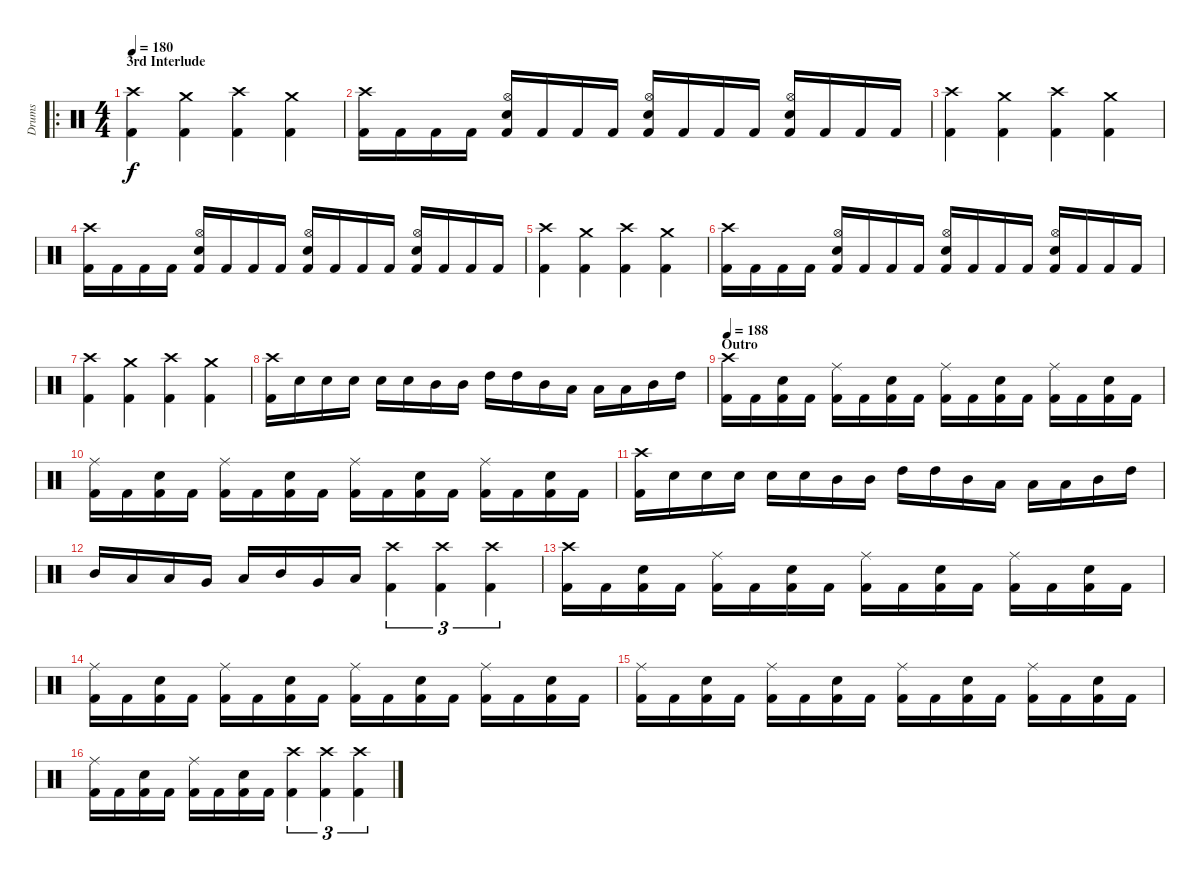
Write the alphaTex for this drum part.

\track ("Drums" "Drums") {instrument percussion}
\staff {score}
\articulation defaults
\ro
\ts (4 4)
\section ("" "3rd Interlude")
\tempo 180
\clef neutral
\ks c
("Crash high (hit)" "Kick (hit) 2").4{dy f} ("Crash medium (hit)" "Kick (hit) 2").4 ("Crash high (hit)" "Kick (hit) 2").4 ("Crash medium (hit)" "Kick (hit) 2").4 |
("Crash high (hit)" "Kick (hit) 2").16 "Kick (hit) 2".16 "Kick (hit) 2".16 "Kick (hit) 2".16 ("Hi-Hat (open)" "Electric Snare (hit)" "Kick (hit) 2").16 "Kick (hit) 2".16 "Kick (hit) 2".16 "Kick (hit) 2".16 ("Hi-Hat (open)" "Electric Snare (hit)" "Kick (hit) 2").16 "Kick (hit) 2".16 "Kick (hit) 2".16 "Kick (hit) 2".16 ("Hi-Hat (open)" "Electric Snare (hit)" "Kick (hit) 2").16 "Kick (hit) 2".16 "Kick (hit) 2".16 "Kick (hit) 2".16 |
("Crash high (hit)" "Kick (hit) 2").4 ("Crash medium (hit)" "Kick (hit) 2").4 ("Crash high (hit)" "Kick (hit) 2").4 ("Crash medium (hit)" "Kick (hit) 2").4 |
("Crash high (hit)" "Kick (hit) 2").16 "Kick (hit) 2".16 "Kick (hit) 2".16 "Kick (hit) 2".16 ("Hi-Hat (open)" "Electric Snare (hit)" "Kick (hit) 2").16 "Kick (hit) 2".16 "Kick (hit) 2".16 "Kick (hit) 2".16 ("Hi-Hat (open)" "Electric Snare (hit)" "Kick (hit) 2").16 "Kick (hit) 2".16 "Kick (hit) 2".16 "Kick (hit) 2".16 ("Hi-Hat (open)" "Electric Snare (hit)" "Kick (hit) 2").16 "Kick (hit) 2".16 "Kick (hit) 2".16 "Kick (hit) 2".16 |
("Crash high (hit)" "Kick (hit) 2").4 ("Crash medium (hit)" "Kick (hit) 2").4 ("Crash high (hit)" "Kick (hit) 2").4 ("Crash medium (hit)" "Kick (hit) 2").4 |
("Crash high (hit)" "Kick (hit) 2").16 "Kick (hit) 2".16 "Kick (hit) 2".16 "Kick (hit) 2".16 ("Hi-Hat (open)" "Electric Snare (hit)" "Kick (hit) 2").16 "Kick (hit) 2".16 "Kick (hit) 2".16 "Kick (hit) 2".16 ("Hi-Hat (open)" "Electric Snare (hit)" "Kick (hit) 2").16 "Kick (hit) 2".16 "Kick (hit) 2".16 "Kick (hit) 2".16 ("Hi-Hat (open)" "Electric Snare (hit)" "Kick (hit) 2").16 "Kick (hit) 2".16 "Kick (hit) 2".16 "Kick (hit) 2".16 |
("Crash high (hit)" "Kick (hit) 2").4 ("Crash medium (hit)" "Kick (hit) 2").4 ("Crash high (hit)" "Kick (hit) 2").4 ("Crash medium (hit)" "Kick (hit) 2").4 |
("Crash high (hit)" "Kick (hit) 2").16 "Electric Snare (hit)".16 "Electric Snare (hit)".16 "Electric Snare (hit)".16 "Electric Snare (hit)".16 "Electric Snare (hit)".16 "Mid Tom (hit)".16 "Mid Tom (hit)".16 "High Tom (hit)".16 "High Tom (hit)".16 "Mid Tom (hit)".16 "Low Tom (hit)".16 "Low Tom (hit)".16 "Low Tom (hit)".16 "Mid Tom (hit)".16 "High Tom (hit)".16 |
\section ("" "Outro")
\tempo 188
("Crash high (hit)" "Kick (hit) 2").16 "Kick (hit) 2".16 ("Electric Snare (hit)" "Kick (hit) 2").16 "Kick (hit) 2".16 ("Ride (middle)" "Kick (hit) 2").16 "Kick (hit) 2".16 ("Electric Snare (hit)" "Kick (hit) 2").16 "Kick (hit) 2".16 ("Ride (middle)" "Kick (hit) 2").16 "Kick (hit) 2".16 ("Electric Snare (hit)" "Kick (hit) 2").16 "Kick (hit) 2".16 ("Ride (middle)" "Kick (hit) 2").16 "Kick (hit) 2".16 ("Electric Snare (hit)" "Kick (hit) 2").16 "Kick (hit) 2".16 |
("Ride (middle)" "Kick (hit) 2").16 "Kick (hit) 2".16 ("Electric Snare (hit)" "Kick (hit) 2").16 "Kick (hit) 2".16 ("Ride (middle)" "Kick (hit) 2").16 "Kick (hit) 2".16 ("Electric Snare (hit)" "Kick (hit) 2").16 "Kick (hit) 2".16 ("Ride (middle)" "Kick (hit) 2").16 "Kick (hit) 2".16 ("Electric Snare (hit)" "Kick (hit) 2").16 "Kick (hit) 2".16 ("Ride (middle)" "Kick (hit) 2").16 "Kick (hit) 2".16 ("Electric Snare (hit)" "Kick (hit) 2").16 "Kick (hit) 2".16 |
("Crash high (hit)" "Kick (hit) 2").16 "Electric Snare (hit)".16 "Electric Snare (hit)".16 "Electric Snare (hit)".16 "Electric Snare (hit)".16 "Electric Snare (hit)".16 "Mid Tom (hit)".16 "Mid Tom (hit)".16 "High Tom (hit)".16 "High Tom (hit)".16 "Mid Tom (hit)".16 "Low Tom (hit)".16 "Low Tom (hit)".16 "Low Tom (hit)".16 "Mid Tom (hit)".16 "High Tom (hit)".16 |
"Mid Tom (hit)".16 "Low Tom (hit)".16 "Low Tom (hit)".16 "Very Low Tom (hit)".16 "Low Tom (hit)".16 "Mid Tom (hit)".16 "Very Low Tom (hit)".16 "Low Floor Tom (hit)".16 ("Crash high (hit)" "Kick (hit) 2").4{tu (3 2)} ("Crash high (hit)" "Kick (hit) 2").4{tu (3 2)} ("Crash high (hit)" "Kick (hit) 2").4{tu (3 2)} |
("Crash high (hit)" "Kick (hit) 2").16 "Kick (hit) 2".16 ("Electric Snare (hit)" "Kick (hit) 2").16 "Kick (hit) 2".16 ("Ride (middle)" "Kick (hit) 2").16 "Kick (hit) 2".16 ("Electric Snare (hit)" "Kick (hit) 2").16 "Kick (hit) 2".16 ("Ride (middle)" "Kick (hit) 2").16 "Kick (hit) 2".16 ("Electric Snare (hit)" "Kick (hit) 2").16 "Kick (hit) 2".16 ("Ride (middle)" "Kick (hit) 2").16 "Kick (hit) 2".16 ("Electric Snare (hit)" "Kick (hit) 2").16 "Kick (hit) 2".16 |
("Ride (middle)" "Kick (hit) 2").16 "Kick (hit) 2".16 ("Electric Snare (hit)" "Kick (hit) 2").16 "Kick (hit) 2".16 ("Ride (middle)" "Kick (hit) 2").16 "Kick (hit) 2".16 ("Electric Snare (hit)" "Kick (hit) 2").16 "Kick (hit) 2".16 ("Ride (middle)" "Kick (hit) 2").16 "Kick (hit) 2".16 ("Electric Snare (hit)" "Kick (hit) 2").16 "Kick (hit) 2".16 ("Ride (middle)" "Kick (hit) 2").16 "Kick (hit) 2".16 ("Electric Snare (hit)" "Kick (hit) 2").16 "Kick (hit) 2".16 |
("Ride (middle)" "Kick (hit) 2").16 "Kick (hit) 2".16 ("Electric Snare (hit)" "Kick (hit) 2").16 "Kick (hit) 2".16 ("Ride (middle)" "Kick (hit) 2").16 "Kick (hit) 2".16 ("Electric Snare (hit)" "Kick (hit) 2").16 "Kick (hit) 2".16 ("Ride (middle)" "Kick (hit) 2").16 "Kick (hit) 2".16 ("Electric Snare (hit)" "Kick (hit) 2").16 "Kick (hit) 2".16 ("Ride (middle)" "Kick (hit) 2").16 "Kick (hit) 2".16 ("Electric Snare (hit)" "Kick (hit) 2").16 "Kick (hit) 2".16 |
("Ride (middle)" "Kick (hit) 2").16 "Kick (hit) 2".16 ("Electric Snare (hit)" "Kick (hit) 2").16 "Kick (hit) 2".16 ("Ride (middle)" "Kick (hit) 2").16 "Kick (hit) 2".16 ("Electric Snare (hit)" "Kick (hit) 2").16 "Kick (hit) 2".16 ("Crash high (hit)" "Kick (hit) 2").4{tu (3 2)} ("Crash high (hit)" "Kick (hit) 2").4{tu (3 2)} ("Crash high (hit)" "Kick (hit) 2").4{tu (3 2)}
